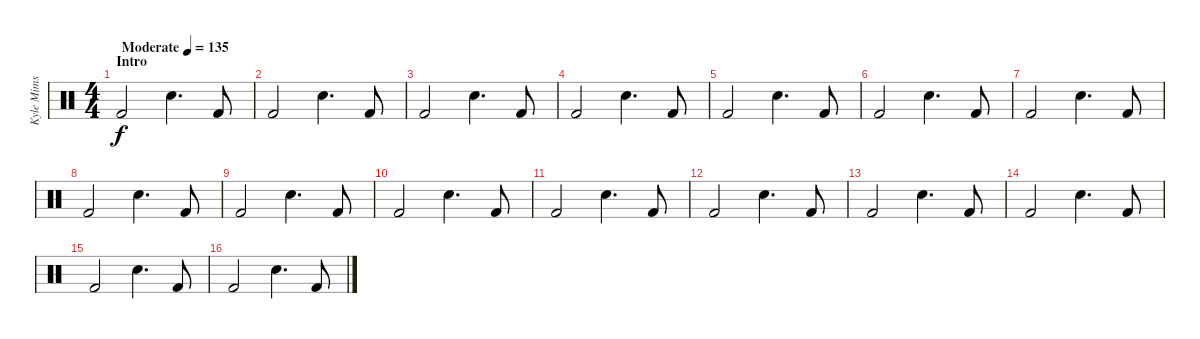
\track ("Kyle Mims" "Kyle Mims") {instrument percussion}
\staff {score}
\articulation defaults
\ts (4 4)
\section ("" "Intro")
\tempo (135 "Moderate")
\clef neutral
\ks c "Kick (hit) 2".2{dy f} "Electric Snare (hit)".4{d} "Kick (hit) 2".8
|
"Kick (hit) 2".2 "Electric Snare (hit)".4{d} "Kick (hit) 2".8 |
"Kick (hit) 2".2 "Electric Snare (hit)".4{d} "Kick (hit) 2".8 |
"Kick (hit) 2".2 "Electric Snare (hit)".4{d} "Kick (hit) 2".8 |
"Kick (hit) 2".2 "Electric Snare (hit)".4{d} "Kick (hit) 2".8 |
"Kick (hit) 2".2 "Electric Snare (hit)".4{d} "Kick (hit) 2".8 |
"Kick (hit) 2".2 "Electric Snare (hit)".4{d} "Kick (hit) 2".8 |
"Kick (hit) 2".2 "Electric Snare (hit)".4{d} "Kick (hit) 2".8 |
"Kick (hit) 2".2 "Electric Snare (hit)".4{d} "Kick (hit) 2".8 |
"Kick (hit) 2".2 "Electric Snare (hit)".4{d} "Kick (hit) 2".8 |
"Kick (hit) 2".2 "Electric Snare (hit)".4{d} "Kick (hit) 2".8 |
"Kick (hit) 2".2 "Electric Snare (hit)".4{d} "Kick (hit) 2".8 |
"Kick (hit) 2".2 "Electric Snare (hit)".4{d} "Kick (hit) 2".8 |
"Kick (hit) 2".2 "Electric Snare (hit)".4{d} "Kick (hit) 2".8 |
"Kick (hit) 2".2 "Electric Snare (hit)".4{d} "Kick (hit) 2".8 |
"Kick (hit) 2".2 "Electric Snare (hit)".4{d} "Kick (hit) 2".8
